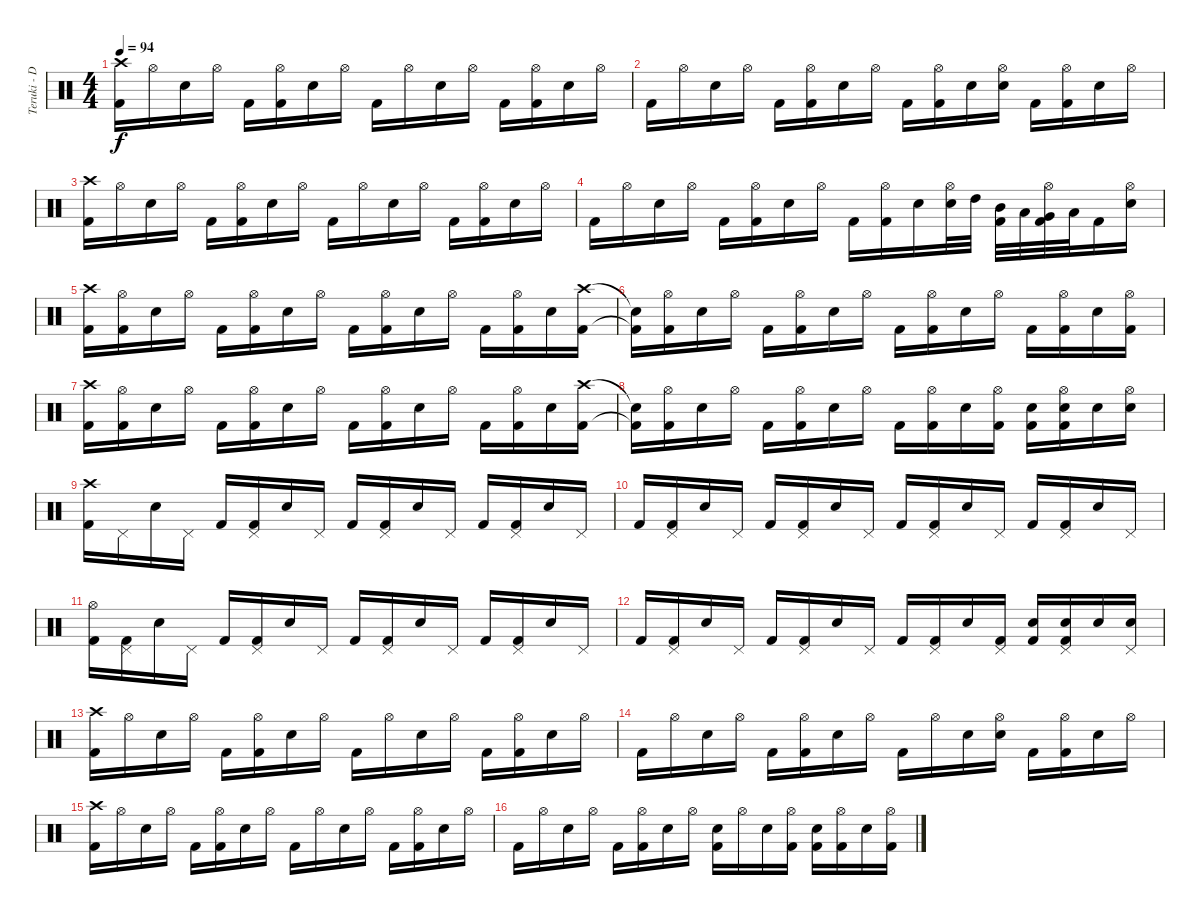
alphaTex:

\track ("Teruki - Drums" "Teruki - D") {instrument percussion}
\staff {score}
\articulation defaults
\ts (4 4)
\tempo 94
\clef neutral
\ks c
("Crash high (hit)" "Kick (hit) 2").16{dy f} "Hi-Hat (open)".16 "Electric Snare (hit)".16 "Hi-Hat (open)".16 "Kick (hit) 2".16 ("Hi-Hat (open)" "Kick (hit) 2").16 "Electric Snare (hit)".16 "Hi-Hat (open)".16 "Kick (hit) 2".16 "Hi-Hat (open)".16 "Electric Snare (hit)".16 "Hi-Hat (open)".16 "Kick (hit) 2".16 ("Hi-Hat (open)" "Kick (hit) 2").16 "Electric Snare (hit)".16 "Hi-Hat (open)".16 |
"Kick (hit) 2".16 "Hi-Hat (open)".16 "Electric Snare (hit)".16 "Hi-Hat (open)".16 "Kick (hit) 2".16 ("Hi-Hat (open)" "Kick (hit) 2").16 "Electric Snare (hit)".16 "Hi-Hat (open)".16 "Kick (hit) 2".16 ("Hi-Hat (open)" "Kick (hit) 2").16 "Electric Snare (hit)".16 ("Hi-Hat (open)" "Electric Snare (hit)").16 "Kick (hit) 2".16 ("Hi-Hat (open)" "Kick (hit) 2").16 "Electric Snare (hit)".16 "Hi-Hat (open)".16 |
("Crash high (hit)" "Kick (hit) 2").16 "Hi-Hat (open)".16 "Electric Snare (hit)".16 "Hi-Hat (open)".16 "Kick (hit) 2".16 ("Hi-Hat (open)" "Kick (hit) 2").16 "Electric Snare (hit)".16 "Hi-Hat (open)".16 "Kick (hit) 2".16 "Hi-Hat (open)".16 "Electric Snare (hit)".16 "Hi-Hat (open)".16 "Kick (hit) 2".16 ("Hi-Hat (open)" "Kick (hit) 2").16 "Electric Snare (hit)".16 "Hi-Hat (open)".16 |
"Kick (hit) 2".16 "Hi-Hat (open)".16 "Electric Snare (hit)".16 "Hi-Hat (open)".16 "Kick (hit) 2".16 ("Hi-Hat (open)" "Kick (hit) 2").16 "Electric Snare (hit)".16 "Hi-Hat (open)".16 "Kick (hit) 2".16 ("Hi-Hat (open)" "Kick (hit) 2").16 "Electric Snare (hit)".16 ("Hi-Hat (open)" "Electric Snare (hit)").32 "High Tom (hit)".32 ("Mid Tom (hit)" "Kick (hit) 2").32 "Low Tom (hit)".32 ("Hi-Hat (open)" "Very Low Tom (hit)" "Kick (hit) 2").32 "Low Floor Tom (hit)".32 "Kick (hit) 2".16 ("Hi-Hat (open)" "Electric Snare (hit)").16 |
("Crash high (hit)" "Kick (hit) 2").16 ("Hi-Hat (open)" "Kick (hit) 2").16 "Electric Snare (hit)".16 "Hi-Hat (open)".16 "Kick (hit) 2".16 ("Hi-Hat (open)" "Kick (hit) 2").16 "Electric Snare (hit)".16 "Hi-Hat (open)".16 "Kick (hit) 2".16 ("Hi-Hat (open)" "Kick (hit) 2").16 "Electric Snare (hit)".16 "Hi-Hat (open)".16 "Kick (hit) 2".16 ("Hi-Hat (open)" "Kick (hit) 2").16 "Electric Snare (hit)".16 ("Crash high (hit)" "Kick (hit) 2").16 |
("Snare (hit)"{t} "Kick (hit) 2"{t}).16 ("Hi-Hat (open)" "Kick (hit) 2").16 "Electric Snare (hit)".16 "Hi-Hat (open)".16 "Kick (hit) 2".16 ("Hi-Hat (open)" "Kick (hit) 2").16 "Electric Snare (hit)".16 "Hi-Hat (open)".16 "Kick (hit) 2".16 ("Hi-Hat (open)" "Kick (hit) 2").16 "Electric Snare (hit)".16 "Hi-Hat (open)".16 "Kick (hit) 2".16 ("Hi-Hat (open)" "Kick (hit) 2").16 "Electric Snare (hit)".16 ("Hi-Hat (open)" "Kick (hit) 2").16 |
("Crash high (hit)" "Kick (hit) 2").16 ("Hi-Hat (open)" "Kick (hit) 2").16 "Electric Snare (hit)".16 "Hi-Hat (open)".16 "Kick (hit) 2".16 ("Hi-Hat (open)" "Kick (hit) 2").16 "Electric Snare (hit)".16 "Hi-Hat (open)".16 "Kick (hit) 2".16 ("Hi-Hat (open)" "Kick (hit) 2").16 "Electric Snare (hit)".16 "Hi-Hat (open)".16 "Kick (hit) 2".16 ("Hi-Hat (open)" "Kick (hit) 2").16 "Electric Snare (hit)".16 ("Crash high (hit)" "Kick (hit) 2").16 |
("Snare (hit)"{t} "Kick (hit) 2"{t}).16 ("Hi-Hat (open)" "Kick (hit) 2").16 "Electric Snare (hit)".16 "Hi-Hat (open)".16 "Kick (hit) 2".16 ("Hi-Hat (open)" "Kick (hit) 2").16 "Electric Snare (hit)".16 "Hi-Hat (open)".16 "Kick (hit) 2".16 ("Hi-Hat (open)" "Kick (hit) 2").16 "Electric Snare (hit)".16 ("Hi-Hat (open)" "Kick (hit) 2").16 ("Electric Snare (hit)" "Kick (hit) 2").16 ("Hi-Hat (open)" "Electric Snare (hit)" "Kick (hit) 2").16 "Electric Snare (hit)".16 ("Hi-Hat (open)" "Electric Snare (hit)").16 |
("Crash high (hit)" "Kick (hit) 2").16 "Pedal Hi-Hat (hit)".16 "Electric Snare (hit)".16 "Pedal Hi-Hat (hit)".16 "Kick (hit) 2".16 ("Pedal Hi-Hat (hit)" "Kick (hit) 2").16 "Electric Snare (hit)".16 "Pedal Hi-Hat (hit)".16 "Kick (hit) 2".16 ("Pedal Hi-Hat (hit)" "Kick (hit) 2").16 "Electric Snare (hit)".16 "Pedal Hi-Hat (hit)".16 "Kick (hit) 2".16 ("Pedal Hi-Hat (hit)" "Kick (hit) 2").16 "Electric Snare (hit)".16 "Pedal Hi-Hat (hit)".16 |
"Kick (hit) 2".16 ("Pedal Hi-Hat (hit)" "Kick (hit) 2").16 "Electric Snare (hit)".16 "Pedal Hi-Hat (hit)".16 "Kick (hit) 2".16 ("Pedal Hi-Hat (hit)" "Kick (hit) 2").16 "Electric Snare (hit)".16 "Pedal Hi-Hat (hit)".16 "Kick (hit) 2".16 ("Pedal Hi-Hat (hit)" "Kick (hit) 2").16 "Electric Snare (hit)".16 "Pedal Hi-Hat (hit)".16 "Kick (hit) 2".16 ("Pedal Hi-Hat (hit)" "Kick (hit) 2").16 "Electric Snare (hit)".16 "Pedal Hi-Hat (hit)".16 |
("Hi-Hat (open)" "Kick (hit) 2").16 ("Pedal Hi-Hat (hit)" "Kick (hit) 2").16 "Electric Snare (hit)".16 "Pedal Hi-Hat (hit)".16 "Kick (hit) 2".16 ("Pedal Hi-Hat (hit)" "Kick (hit) 2").16 "Electric Snare (hit)".16 "Pedal Hi-Hat (hit)".16 "Kick (hit) 2".16 ("Pedal Hi-Hat (hit)" "Kick (hit) 2").16 "Electric Snare (hit)".16 "Pedal Hi-Hat (hit)".16 "Kick (hit) 2".16 ("Pedal Hi-Hat (hit)" "Kick (hit) 2").16 "Electric Snare (hit)".16 "Pedal Hi-Hat (hit)".16 |
"Kick (hit) 2".16 ("Pedal Hi-Hat (hit)" "Kick (hit) 2").16 "Electric Snare (hit)".16 "Pedal Hi-Hat (hit)".16 "Kick (hit) 2".16 ("Pedal Hi-Hat (hit)" "Kick (hit) 2").16 "Electric Snare (hit)".16 "Pedal Hi-Hat (hit)".16 "Kick (hit) 2".16 ("Pedal Hi-Hat (hit)" "Kick (hit) 2").16 "Electric Snare (hit)".16 ("Pedal Hi-Hat (hit)" "Kick (hit) 2").16 ("Electric Snare (hit)" "Kick (hit) 2").16 ("Pedal Hi-Hat (hit)" "Electric Snare (hit)" "Kick (hit) 2").16 "Electric Snare (hit)".16 ("Pedal Hi-Hat (hit)" "Electric Snare (hit)").16 |
("Crash high (hit)" "Kick (hit) 2").16 "Hi-Hat (open)".16 "Electric Snare (hit)".16 "Hi-Hat (open)".16 "Kick (hit) 2".16 ("Hi-Hat (open)" "Kick (hit) 2").16 "Electric Snare (hit)".16 "Hi-Hat (open)".16 "Kick (hit) 2".16 "Hi-Hat (open)".16 "Electric Snare (hit)".16 "Hi-Hat (open)".16 "Kick (hit) 2".16 ("Hi-Hat (open)" "Kick (hit) 2").16 "Electric Snare (hit)".16 "Hi-Hat (open)".16 |
"Kick (hit) 2".16 "Hi-Hat (open)".16 "Electric Snare (hit)".16 "Hi-Hat (open)".16 "Kick (hit) 2".16 ("Hi-Hat (open)" "Kick (hit) 2").16 "Electric Snare (hit)".16 "Hi-Hat (open)".16 "Kick (hit) 2".16 "Hi-Hat (open)".16 "Electric Snare (hit)".16 ("Hi-Hat (open)" "Electric Snare (hit)").16 "Kick (hit) 2".16 ("Hi-Hat (open)" "Kick (hit) 2").16 "Electric Snare (hit)".16 "Hi-Hat (open)".16 |
("Crash high (hit)" "Kick (hit) 2").16 "Hi-Hat (open)".16 "Electric Snare (hit)".16 "Hi-Hat (open)".16 "Kick (hit) 2".16 ("Hi-Hat (open)" "Kick (hit) 2").16 "Electric Snare (hit)".16 "Hi-Hat (open)".16 "Kick (hit) 2".16 "Hi-Hat (open)".16 "Electric Snare (hit)".16 "Hi-Hat (open)".16 "Kick (hit) 2".16 ("Hi-Hat (open)" "Kick (hit) 2").16 "Electric Snare (hit)".16 "Hi-Hat (open)".16 |
"Kick (hit) 2".16 "Hi-Hat (open)".16 "Electric Snare (hit)".16 "Hi-Hat (open)".16 "Kick (hit) 2".16 ("Hi-Hat (open)" "Kick (hit) 2").16 "Electric Snare (hit)".16 "Hi-Hat (open)".16 ("Electric Snare (hit)" "Kick (hit) 2").16 "Hi-Hat (open)".16 "Electric Snare (hit)".16 ("Hi-Hat (open)" "Kick (hit) 2").16 ("Electric Snare (hit)" "Kick (hit) 2").16 ("Hi-Hat (open)" "Kick (hit) 2").16 "Electric Snare (hit)".16 ("Hi-Hat (open)" "Kick (hit) 2").16
